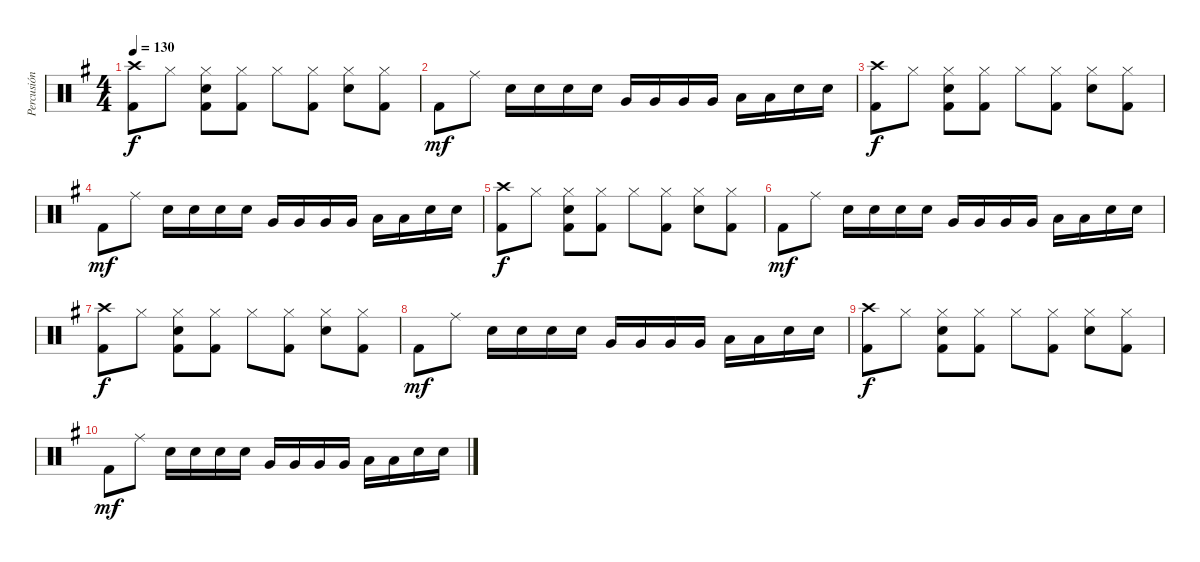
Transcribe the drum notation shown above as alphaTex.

\track ("Percusión" "Percusión") {instrument percussion}
\staff {score}
\articulation defaults
\ts (4 4)
\tempo 130
\clef neutral
\ks g
("Crash high (hit)" "Kick (hit) 2").8{dy f} "Hi-Hat (closed)".8 ("Hi-Hat (closed)" "Snare (hit) 2" "Kick (hit) 2").8 ("Hi-Hat (closed)" "Kick (hit) 2").8 "Hi-Hat (closed)".8 ("Hi-Hat (closed)" "Kick (hit) 2").8 ("Hi-Hat (closed)" "Snare (hit) 2").8 ("Hi-Hat (closed)" "Kick (hit) 2").8 |
"Kick (hit) 2".8{dy mf} "Ride (middle)".8 "Snare (hit) 2".16 "Snare (hit) 2".16 "Snare (hit) 2".16 "Snare (hit) 2".16 "Very Low Tom (hit)".16 "Very Low Tom (hit)".16 "Very Low Tom (hit)".16 "Very Low Tom (hit)".16 "Low Tom (hit)".16 "Low Tom (hit)".16 "Snare (hit) 2".16 "Snare (hit) 2".16 |
("Crash high (hit)" "Kick (hit) 2").8{dy f} "Hi-Hat (closed)".8 ("Hi-Hat (closed)" "Snare (hit) 2" "Kick (hit) 2").8 ("Hi-Hat (closed)" "Kick (hit) 2").8 "Hi-Hat (closed)".8 ("Hi-Hat (closed)" "Kick (hit) 2").8 ("Hi-Hat (closed)" "Snare (hit) 2").8 ("Hi-Hat (closed)" "Kick (hit) 2").8 |
"Kick (hit) 2".8{dy mf} "Ride (middle)".8 "Snare (hit) 2".16 "Snare (hit) 2".16 "Snare (hit) 2".16 "Snare (hit) 2".16 "Very Low Tom (hit)".16 "Very Low Tom (hit)".16 "Very Low Tom (hit)".16 "Very Low Tom (hit)".16 "Low Tom (hit)".16 "Low Tom (hit)".16 "Snare (hit) 2".16 "Snare (hit) 2".16 |
("Crash high (hit)" "Kick (hit) 2").8{dy f} "Hi-Hat (closed)".8 ("Hi-Hat (closed)" "Snare (hit) 2" "Kick (hit) 2").8 ("Hi-Hat (closed)" "Kick (hit) 2").8 "Hi-Hat (closed)".8 ("Hi-Hat (closed)" "Kick (hit) 2").8 ("Hi-Hat (closed)" "Snare (hit) 2").8 ("Hi-Hat (closed)" "Kick (hit) 2").8 |
"Kick (hit) 2".8{dy mf} "Ride (middle)".8 "Snare (hit) 2".16 "Snare (hit) 2".16 "Snare (hit) 2".16 "Snare (hit) 2".16 "Very Low Tom (hit)".16 "Very Low Tom (hit)".16 "Very Low Tom (hit)".16 "Very Low Tom (hit)".16 "Low Tom (hit)".16 "Low Tom (hit)".16 "Snare (hit) 2".16 "Snare (hit) 2".16 |
("Crash high (hit)" "Kick (hit) 2").8{dy f} "Hi-Hat (closed)".8 ("Hi-Hat (closed)" "Snare (hit) 2" "Kick (hit) 2").8 ("Hi-Hat (closed)" "Kick (hit) 2").8 "Hi-Hat (closed)".8 ("Hi-Hat (closed)" "Kick (hit) 2").8 ("Hi-Hat (closed)" "Snare (hit) 2").8 ("Hi-Hat (closed)" "Kick (hit) 2").8 |
"Kick (hit) 2".8{dy mf} "Ride (middle)".8 "Snare (hit) 2".16 "Snare (hit) 2".16 "Snare (hit) 2".16 "Snare (hit) 2".16 "Very Low Tom (hit)".16 "Very Low Tom (hit)".16 "Very Low Tom (hit)".16 "Very Low Tom (hit)".16 "Low Tom (hit)".16 "Low Tom (hit)".16 "Snare (hit) 2".16 "Snare (hit) 2".16 |
("Crash high (hit)" "Kick (hit) 2").8{dy f} "Hi-Hat (closed)".8 ("Hi-Hat (closed)" "Snare (hit) 2" "Kick (hit) 2").8 ("Hi-Hat (closed)" "Kick (hit) 2").8 "Hi-Hat (closed)".8 ("Hi-Hat (closed)" "Kick (hit) 2").8 ("Hi-Hat (closed)" "Snare (hit) 2").8 ("Hi-Hat (closed)" "Kick (hit) 2").8 |
"Kick (hit) 2".8{dy mf} "Ride (middle)".8 "Snare (hit) 2".16 "Snare (hit) 2".16 "Snare (hit) 2".16 "Snare (hit) 2".16 "Very Low Tom (hit)".16 "Very Low Tom (hit)".16 "Very Low Tom (hit)".16 "Very Low Tom (hit)".16 "Low Tom (hit)".16 "Low Tom (hit)".16 "Snare (hit) 2".16 "Snare (hit) 2".16
